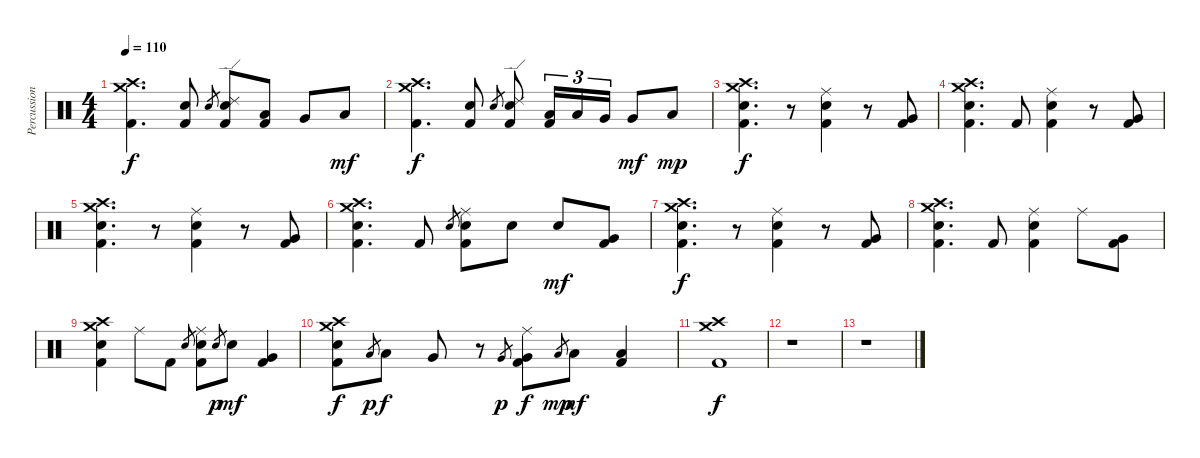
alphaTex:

\track ("Percussion" "Percussion") {instrument percussion}
\staff {score}
\articulation defaults
\ts (4 4)
\tempo 110
\clef neutral
\ks c
("Crash high (hit)" "Crash medium (hit)" "Kick (hit) 2").4{d dy f} ("Electric Snare (hit)" "Kick (hit) 2").8 "Electric Snare (hit)".8{gr} ("Ride (edge) 2" "Electric Snare (hit)" "Kick (hit) 2").8 ("Low Tom (hit)" "Kick (hit) 2").8 "Very Low Tom (hit)".8 "Low Floor Tom (hit)".8{dy mf} |
("Crash high (hit)" "Crash medium (hit)" "Kick (hit) 2").4{d dy f} ("Electric Snare (hit)" "Kick (hit) 2").8 "Electric Snare (hit)".8{gr} ("Ride (edge) 2" "Electric Snare (hit)" "Kick (hit) 2").8 ("Low Tom (hit)" "Kick (hit) 2").16{tu (3 2)} "Low Tom (hit)".16{tu (3 2)} "Very Low Tom (hit)".16{tu (3 2)} "Very Low Tom (hit)".8{dy mf} "Low Floor Tom (hit)".8{dy mp} |
("Crash high (hit)" "Crash medium (hit)" "Electric Snare (hit)" "Kick (hit) 2").4{d dy f} r.8 ("Ride (middle)" "Electric Snare (hit)" "Kick (hit) 2").4 r.8 ("Very Low Tom (hit)" "Kick (hit) 2").8 |
("Crash high (hit)" "Crash medium (hit)" "Electric Snare (hit)" "Kick (hit) 2").4{d} "Kick (hit) 2".8 ("Ride (middle)" "Electric Snare (hit)" "Kick (hit) 2").4 r.8 ("Very Low Tom (hit)" "Kick (hit) 2").8 |
("Crash high (hit)" "Crash medium (hit)" "Electric Snare (hit)" "Kick (hit) 2").4{d} r.8 ("Ride (middle)" "Electric Snare (hit)" "Kick (hit) 2").4 r.8 ("Very Low Tom (hit)" "Kick (hit) 2").8 |
("Crash high (hit)" "Crash medium (hit)" "Electric Snare (hit)" "Kick (hit) 2").4{d} "Kick (hit) 2".8 "Electric Snare (hit)".8{gr} ("Ride (middle)" "Electric Snare (hit)" "Kick (hit) 2").8 "Electric Snare (hit)".8 "Electric Snare (hit)".8{dy mf} ("Very Low Tom (hit)" "Kick (hit) 2").8 |
("Crash high (hit)" "Crash medium (hit)" "Electric Snare (hit)" "Kick (hit) 2").4{d dy f} r.8 ("Ride (middle)" "Electric Snare (hit)" "Kick (hit) 2").4 r.8 ("Very Low Tom (hit)" "Kick (hit) 2").8 |
("Crash high (hit)" "Crash medium (hit)" "Electric Snare (hit)" "Kick (hit) 2").4{d} "Kick (hit) 2".8 ("Ride (middle)" "Electric Snare (hit)" "Kick (hit) 2").4 "Ride (middle)".8 ("Very Low Tom (hit)" "Kick (hit) 2").8 |
("Crash high (hit)" "Crash medium (hit)" "Electric Snare (hit)" "Kick (hit) 2").4 "Ride (middle)".8 "Kick (hit) 2".8 "Electric Snare (hit)".8{gr} ("Ride (middle)" "Electric Snare (hit)" "Kick (hit) 2").8 "Electric Snare (hit)".8{gr dy p} "Electric Snare (hit)".8{dy mf} ("Very Low Tom (hit)" "Kick (hit) 2").4 |
("Crash high (hit)" "Crash medium (hit)" "Electric Snare (hit)" "Kick (hit) 2").8{dy f} "Low Tom (hit)".8{gr dy p} "Low Tom (hit)".8{dy f} "Very Low Tom (hit)".8 r.8 "Very Low Tom (hit)".8{gr dy p} ("Ride (middle)" "Very Low Tom (hit)" "Kick (hit) 2").8{dy f} "Low Floor Tom (hit)".8{gr dy mp} "Low Floor Tom (hit)".8{dy mf} ("Low Floor Tom (hit)" "Kick (hit) 2").4 |
("Crash high (hit)" "Crash medium (hit)" "Kick (hit) 2").1{dy f} |
r.1 |
r.1
